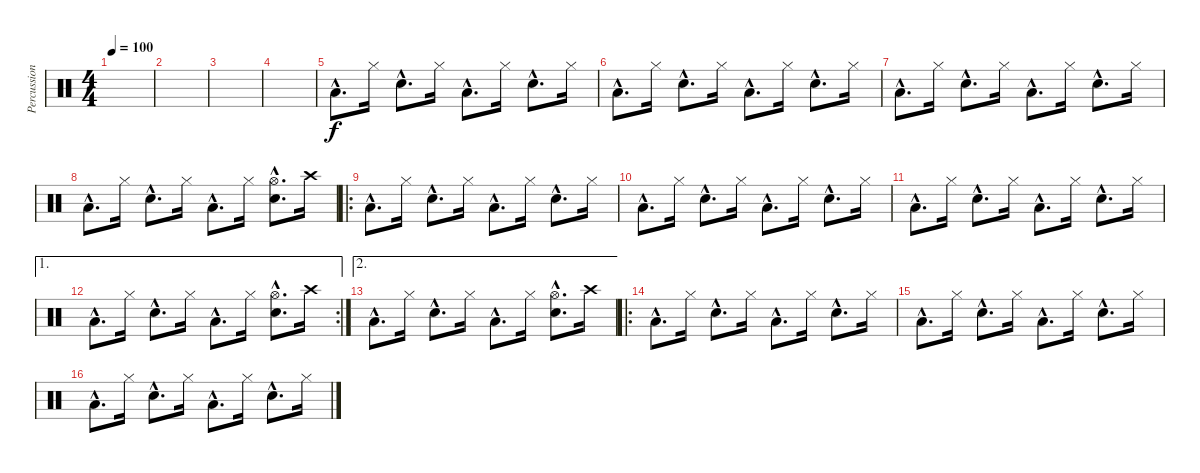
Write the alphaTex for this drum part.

\track ("Percussions" "Percussion") {instrument percussion}
\staff {score}
\articulation defaults
\ts (4 4)
\tempo 100
\clef neutral
\ks c
|
|
|
|
"Low Floor Tom (hit)"{hac}.8{d} "Hi-Hat (closed)".16 "Electric Snare (hit)"{hac}.8{d} "Hi-Hat (closed)".16 "Low Floor Tom (hit)"{hac}.8{d} "Hi-Hat (closed)".16 "Electric Snare (hit)"{hac}.8{d} "Hi-Hat (closed)".16 |
"Low Floor Tom (hit)"{hac}.8{d} "Hi-Hat (closed)".16 "Electric Snare (hit)"{hac}.8{d} "Hi-Hat (closed)".16 "Low Floor Tom (hit)"{hac}.8{d} "Hi-Hat (closed)".16 "Electric Snare (hit)"{hac}.8{d} "Hi-Hat (closed)".16 |
"Low Floor Tom (hit)"{hac}.8{d} "Hi-Hat (closed)".16 "Electric Snare (hit)"{hac}.8{d} "Hi-Hat (closed)".16 "Low Floor Tom (hit)"{hac}.8{d} "Hi-Hat (closed)".16 "Electric Snare (hit)"{hac}.8{d} "Hi-Hat (closed)".16 |
"Low Floor Tom (hit)"{hac}.8{d} "Hi-Hat (closed)".16 "Electric Snare (hit)"{hac}.8{d} "Hi-Hat (closed)".16 "Low Floor Tom (hit)"{hac}.8{d} "Hi-Hat (closed)".16 ("Hi-Hat (open)"{hac} "Electric Snare (hit)"{hac}).8{d} "Crash high (hit)".16 |
\ro "Low Floor Tom (hit)"{hac}.8{d} "Hi-Hat (closed)".16 "Electric Snare (hit)"{hac}.8{d} "Hi-Hat (closed)".16 "Low Floor Tom (hit)"{hac}.8{d} "Hi-Hat (closed)".16 "Electric Snare (hit)"{hac}.8{d} "Hi-Hat (closed)".16
|
"Low Floor Tom (hit)"{hac}.8{d} "Hi-Hat (closed)".16 "Electric Snare (hit)"{hac}.8{d} "Hi-Hat (closed)".16 "Low Floor Tom (hit)"{hac}.8{d} "Hi-Hat (closed)".16 "Electric Snare (hit)"{hac}.8{d} "Hi-Hat (closed)".16 |
"Low Floor Tom (hit)"{hac}.8{d} "Hi-Hat (closed)".16 "Electric Snare (hit)"{hac}.8{d} "Hi-Hat (closed)".16 "Low Floor Tom (hit)"{hac}.8{d} "Hi-Hat (closed)".16 "Electric Snare (hit)"{hac}.8{d} "Hi-Hat (closed)".16 |
\ae 1
\rc 2 "Low Floor Tom (hit)"{hac}.8{d} "Hi-Hat (closed)".16 "Electric Snare (hit)"{hac}.8{d} "Hi-Hat (closed)".16 "Low Floor Tom (hit)"{hac}.8{d} "Hi-Hat (closed)".16
("Hi-Hat (open)"{hac} "Electric Snare (hit)"{hac}).8{d} "Crash high (hit)".16 |
\ae 2 "Low Floor Tom (hit)"{hac}.8{d} "Hi-Hat (closed)".16 "Electric Snare (hit)"{hac}.8{d} "Hi-Hat (closed)".16 "Low Floor Tom (hit)"{hac}.8{d} "Hi-Hat (closed)".16
("Hi-Hat (open)"{hac} "Electric Snare (hit)"{hac}).8{d} "Crash high (hit)".16 |
\ro "Low Floor Tom (hit)"{hac}.8{d} "Hi-Hat (closed)".16 "Electric Snare (hit)"{hac}.8{d} "Hi-Hat (closed)".16 "Low Floor Tom (hit)"{hac}.8{d} "Hi-Hat (closed)".16 "Electric Snare (hit)"{hac}.8{d} "Hi-Hat (closed)".16
|
"Low Floor Tom (hit)"{hac}.8{d} "Hi-Hat (closed)".16 "Electric Snare (hit)"{hac}.8{d} "Hi-Hat (closed)".16 "Low Floor Tom (hit)"{hac}.8{d} "Hi-Hat (closed)".16 "Electric Snare (hit)"{hac}.8{d} "Hi-Hat (closed)".16 |
"Low Floor Tom (hit)"{hac}.8{d} "Hi-Hat (closed)".16 "Electric Snare (hit)"{hac}.8{d} "Hi-Hat (closed)".16 "Low Floor Tom (hit)"{hac}.8{d} "Hi-Hat (closed)".16 "Electric Snare (hit)"{hac}.8{d} "Hi-Hat (closed)".16
